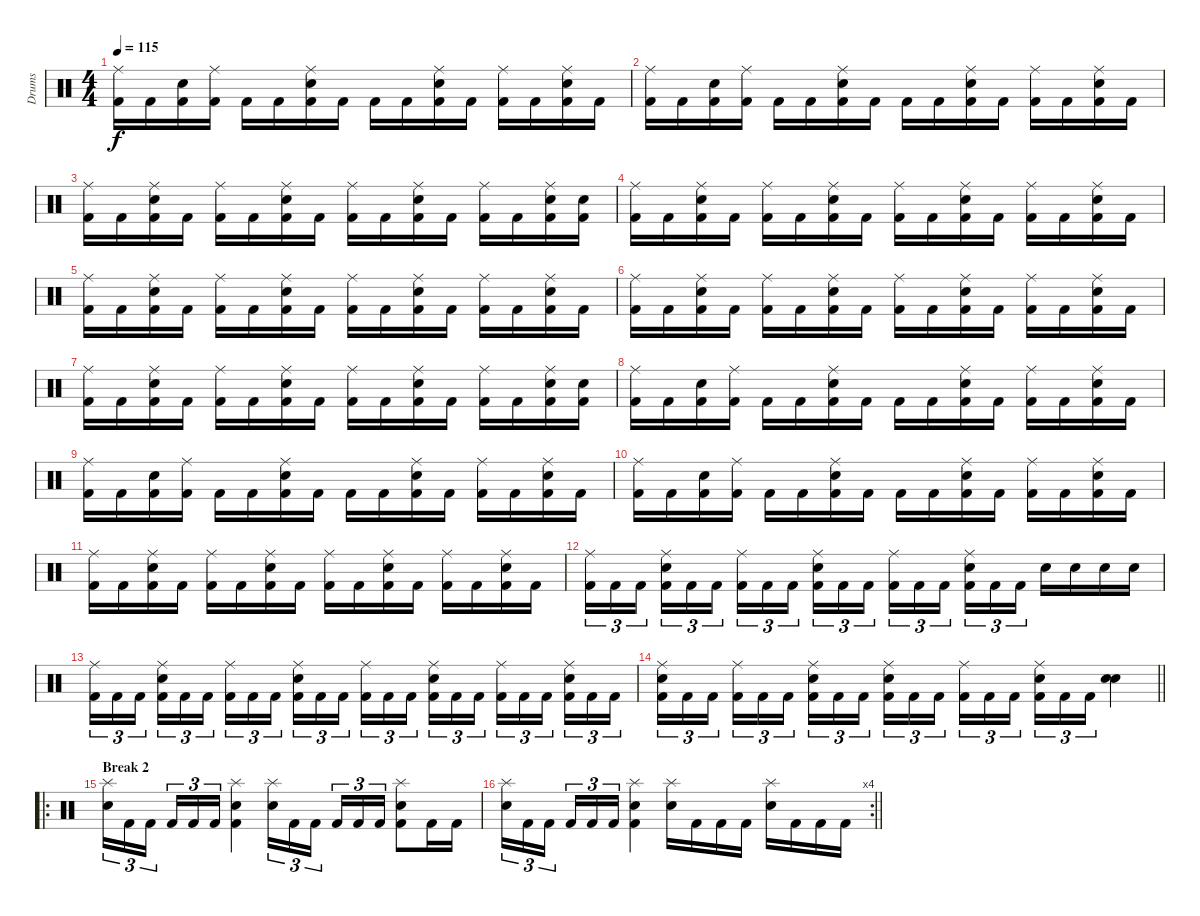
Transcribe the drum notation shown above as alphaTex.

\track ("Drums" "Drums") {instrument percussion}
\staff {score}
\articulation defaults
\ts (4 4)
\tempo 115
\clef neutral
\ks c
("Ride (middle)" "Kick (hit) 2").16{dy f} "Kick (hit) 2".16 ("Electric Snare (hit)" "Kick (hit) 2").16 ("Ride (middle)" "Kick (hit) 2").16 "Kick (hit) 2".16 "Kick (hit) 2".16 ("Ride (middle)" "Electric Snare (hit)" "Kick (hit) 2").16 "Kick (hit) 2".16 "Kick (hit) 2".16 "Kick (hit) 2".16 ("Ride (middle)" "Electric Snare (hit)" "Kick (hit) 2").16 "Kick (hit) 2".16 ("Ride (middle)" "Kick (hit) 2").16 "Kick (hit) 2".16 ("Ride (middle)" "Electric Snare (hit)" "Kick (hit) 2").16 "Kick (hit) 2".16 |
("Ride (middle)" "Kick (hit) 2").16 "Kick (hit) 2".16 ("Electric Snare (hit)" "Kick (hit) 2").16 ("Ride (middle)" "Kick (hit) 2").16 "Kick (hit) 2".16 "Kick (hit) 2".16 ("Ride (middle)" "Electric Snare (hit)" "Kick (hit) 2").16 "Kick (hit) 2".16 "Kick (hit) 2".16 "Kick (hit) 2".16 ("Ride (middle)" "Electric Snare (hit)" "Kick (hit) 2").16 "Kick (hit) 2".16 ("Ride (middle)" "Kick (hit) 2").16 "Kick (hit) 2".16 ("Ride (middle)" "Electric Snare (hit)" "Kick (hit) 2").16 "Kick (hit) 2".16 |
("Ride (middle)" "Kick (hit) 2").16 "Kick (hit) 2".16 ("Ride (middle)" "Electric Snare (hit)" "Kick (hit) 2").16 "Kick (hit) 2".16 ("Ride (middle)" "Kick (hit) 2").16 "Kick (hit) 2".16 ("Ride (middle)" "Electric Snare (hit)" "Kick (hit) 2").16 "Kick (hit) 2".16 ("Ride (middle)" "Kick (hit) 2").16 "Kick (hit) 2".16 ("Ride (middle)" "Electric Snare (hit)" "Kick (hit) 2").16 "Kick (hit) 2".16 ("Ride (middle)" "Kick (hit) 2").16 "Kick (hit) 2".16 ("Ride (middle)" "Electric Snare (hit)" "Kick (hit) 2").16 ("Electric Snare (hit)" "Kick (hit) 2").16 |
("Ride (middle)" "Kick (hit) 2").16 "Kick (hit) 2".16 ("Ride (middle)" "Electric Snare (hit)" "Kick (hit) 2").16 "Kick (hit) 2".16 ("Ride (middle)" "Kick (hit) 2").16 "Kick (hit) 2".16 ("Ride (middle)" "Electric Snare (hit)" "Kick (hit) 2").16 "Kick (hit) 2".16 ("Ride (middle)" "Kick (hit) 2").16 "Kick (hit) 2".16 ("Ride (middle)" "Electric Snare (hit)" "Kick (hit) 2").16 "Kick (hit) 2".16 ("Ride (middle)" "Kick (hit) 2").16 "Kick (hit) 2".16 ("Ride (middle)" "Electric Snare (hit)" "Kick (hit) 2").16 "Kick (hit) 2".16 |
("Ride (middle)" "Kick (hit) 2").16 "Kick (hit) 2".16 ("Ride (middle)" "Electric Snare (hit)" "Kick (hit) 2").16 "Kick (hit) 2".16 ("Ride (middle)" "Kick (hit) 2").16 "Kick (hit) 2".16 ("Ride (middle)" "Electric Snare (hit)" "Kick (hit) 2").16 "Kick (hit) 2".16 ("Ride (middle)" "Kick (hit) 2").16 "Kick (hit) 2".16 ("Ride (middle)" "Electric Snare (hit)" "Kick (hit) 2").16 "Kick (hit) 2".16 ("Ride (middle)" "Kick (hit) 2").16 "Kick (hit) 2".16 ("Ride (middle)" "Electric Snare (hit)" "Kick (hit) 2").16 "Kick (hit) 2".16 |
("Ride (middle)" "Kick (hit) 2").16 "Kick (hit) 2".16 ("Ride (middle)" "Electric Snare (hit)" "Kick (hit) 2").16 "Kick (hit) 2".16 ("Ride (middle)" "Kick (hit) 2").16 "Kick (hit) 2".16 ("Ride (middle)" "Electric Snare (hit)" "Kick (hit) 2").16 "Kick (hit) 2".16 ("Ride (middle)" "Kick (hit) 2").16 "Kick (hit) 2".16 ("Ride (middle)" "Electric Snare (hit)" "Kick (hit) 2").16 "Kick (hit) 2".16 ("Ride (middle)" "Kick (hit) 2").16 "Kick (hit) 2".16 ("Ride (middle)" "Electric Snare (hit)" "Kick (hit) 2").16 "Kick (hit) 2".16 |
("Ride (middle)" "Kick (hit) 2").16 "Kick (hit) 2".16 ("Ride (middle)" "Electric Snare (hit)" "Kick (hit) 2").16 "Kick (hit) 2".16 ("Ride (middle)" "Kick (hit) 2").16 "Kick (hit) 2".16 ("Ride (middle)" "Electric Snare (hit)" "Kick (hit) 2").16 "Kick (hit) 2".16 ("Ride (middle)" "Kick (hit) 2").16 "Kick (hit) 2".16 ("Ride (middle)" "Electric Snare (hit)" "Kick (hit) 2").16 "Kick (hit) 2".16 ("Ride (middle)" "Kick (hit) 2").16 "Kick (hit) 2".16 ("Ride (middle)" "Electric Snare (hit)" "Kick (hit) 2").16 ("Electric Snare (hit)" "Kick (hit) 2").16 |
("Ride (middle)" "Kick (hit) 2").16 "Kick (hit) 2".16 ("Electric Snare (hit)" "Kick (hit) 2").16 ("Ride (middle)" "Kick (hit) 2").16 "Kick (hit) 2".16 "Kick (hit) 2".16 ("Ride (middle)" "Electric Snare (hit)" "Kick (hit) 2").16 "Kick (hit) 2".16 "Kick (hit) 2".16 "Kick (hit) 2".16 ("Ride (middle)" "Electric Snare (hit)" "Kick (hit) 2").16 "Kick (hit) 2".16 ("Ride (middle)" "Kick (hit) 2").16 "Kick (hit) 2".16 ("Ride (middle)" "Electric Snare (hit)" "Kick (hit) 2").16 "Kick (hit) 2".16 |
("Ride (middle)" "Kick (hit) 2").16 "Kick (hit) 2".16 ("Electric Snare (hit)" "Kick (hit) 2").16 ("Ride (middle)" "Kick (hit) 2").16 "Kick (hit) 2".16 "Kick (hit) 2".16 ("Ride (middle)" "Electric Snare (hit)" "Kick (hit) 2").16 "Kick (hit) 2".16 "Kick (hit) 2".16 "Kick (hit) 2".16 ("Ride (middle)" "Electric Snare (hit)" "Kick (hit) 2").16 "Kick (hit) 2".16 ("Ride (middle)" "Kick (hit) 2").16 "Kick (hit) 2".16 ("Ride (middle)" "Electric Snare (hit)" "Kick (hit) 2").16 "Kick (hit) 2".16 |
("Ride (middle)" "Kick (hit) 2").16 "Kick (hit) 2".16 ("Electric Snare (hit)" "Kick (hit) 2").16 ("Ride (middle)" "Kick (hit) 2").16 "Kick (hit) 2".16 "Kick (hit) 2".16 ("Ride (middle)" "Electric Snare (hit)" "Kick (hit) 2").16 "Kick (hit) 2".16 "Kick (hit) 2".16 "Kick (hit) 2".16 ("Ride (middle)" "Electric Snare (hit)" "Kick (hit) 2").16 "Kick (hit) 2".16 ("Ride (middle)" "Kick (hit) 2").16 "Kick (hit) 2".16 ("Ride (middle)" "Electric Snare (hit)" "Kick (hit) 2").16 "Kick (hit) 2".16 |
("Ride (middle)" "Kick (hit) 2").16 "Kick (hit) 2".16 ("Ride (middle)" "Electric Snare (hit)" "Kick (hit) 2").16 "Kick (hit) 2".16 ("Ride (middle)" "Kick (hit) 2").16 "Kick (hit) 2".16 ("Ride (middle)" "Electric Snare (hit)" "Kick (hit) 2").16 "Kick (hit) 2".16 ("Ride (middle)" "Kick (hit) 2").16 "Kick (hit) 2".16 ("Ride (middle)" "Electric Snare (hit)" "Kick (hit) 2").16 "Kick (hit) 2".16 ("Ride (middle)" "Kick (hit) 2").16 "Kick (hit) 2".16 ("Ride (middle)" "Electric Snare (hit)" "Kick (hit) 2").16 "Kick (hit) 2".16 |
("Ride (middle)" "Kick (hit) 2").16{tu (3 2)} "Kick (hit) 2".16{tu (3 2)} "Kick (hit) 2".16{tu (3 2) beam splitsecondary} ("Ride (middle)" "Electric Snare (hit)" "Kick (hit) 2").16{tu (3 2)} "Kick (hit) 2".16{tu (3 2)} "Kick (hit) 2".16{tu (3 2)} ("Ride (middle)" "Kick (hit) 2").16{tu (3 2)} "Kick (hit) 2".16{tu (3 2)} "Kick (hit) 2".16{tu (3 2) beam splitsecondary} ("Ride (middle)" "Electric Snare (hit)" "Kick (hit) 2").16{tu (3 2)} "Kick (hit) 2".16{tu (3 2)} "Kick (hit) 2".16{tu (3 2)} ("Ride (middle)" "Kick (hit) 2").16{tu (3 2)} "Kick (hit) 2".16{tu (3 2)} "Kick (hit) 2".16{tu (3 2) beam splitsecondary} ("Ride (middle)" "Electric Snare (hit)" "Kick (hit) 2").16{tu (3 2)} "Kick (hit) 2".16{tu (3 2)} "Kick (hit) 2".16{tu (3 2)} "Electric Snare (hit)".16 "Electric Snare (hit)".16 "Electric Snare (hit)".16 "Electric Snare (hit)".16 |
("Ride (middle)" "Kick (hit) 2").16{tu (3 2)} "Kick (hit) 2".16{tu (3 2)} "Kick (hit) 2".16{tu (3 2) beam splitsecondary} ("Ride (middle)" "Electric Snare (hit)" "Kick (hit) 2").16{tu (3 2)} "Kick (hit) 2".16{tu (3 2)} "Kick (hit) 2".16{tu (3 2)} ("Ride (middle)" "Kick (hit) 2").16{tu (3 2)} "Kick (hit) 2".16{tu (3 2)} "Kick (hit) 2".16{tu (3 2) beam splitsecondary} ("Ride (middle)" "Electric Snare (hit)" "Kick (hit) 2").16{tu (3 2)} "Kick (hit) 2".16{tu (3 2)} "Kick (hit) 2".16{tu (3 2)} ("Ride (middle)" "Kick (hit) 2").16{tu (3 2)} "Kick (hit) 2".16{tu (3 2)} "Kick (hit) 2".16{tu (3 2) beam splitsecondary} ("Ride (middle)" "Electric Snare (hit)" "Kick (hit) 2").16{tu (3 2)} "Kick (hit) 2".16{tu (3 2)} "Kick (hit) 2".16{tu (3 2)} ("Ride (middle)" "Kick (hit) 2").16{tu (3 2)} "Kick (hit) 2".16{tu (3 2)} "Kick (hit) 2".16{tu (3 2) beam splitsecondary} ("Ride (middle)" "Electric Snare (hit)" "Kick (hit) 2").16{tu (3 2)} "Kick (hit) 2".16{tu (3 2)} "Kick (hit) 2".16{tu (3 2)} |
\barLineRight lightlight
("Ride (middle)" "Electric Snare (hit)" "Kick (hit) 2").16{tu (3 2)} "Kick (hit) 2".16{tu (3 2)} "Kick (hit) 2".16{tu (3 2) beam splitsecondary} ("Ride (middle)" "Kick (hit) 2").16{tu (3 2)} "Kick (hit) 2".16{tu (3 2)} "Kick (hit) 2".16{tu (3 2)} ("Ride (middle)" "Electric Snare (hit)" "Kick (hit) 2").16{tu (3 2)} "Kick (hit) 2".16{tu (3 2)} "Kick (hit) 2".16{tu (3 2) beam splitsecondary} ("Ride (middle)" "Electric Snare (hit)" "Kick (hit) 2").16{tu (3 2)} "Kick (hit) 2".16{tu (3 2)} "Kick (hit) 2".16{tu (3 2)} ("Ride (middle)" "Kick (hit) 2").16{tu (3 2)} "Kick (hit) 2".16{tu (3 2)} "Kick (hit) 2".16{tu (3 2) beam splitsecondary} ("Ride (middle)" "Electric Snare (hit)" "Kick (hit) 2").16{tu (3 2)} "Kick (hit) 2".16{tu (3 2)} "Kick (hit) 2".16{tu (3 2)} ("Electric Snare (hit)" "Electric Snare (hit)").4{bd 120} |
\ro
\section ("" "Break 2")
("Splash (hit)" "Electric Snare (hit)").16{tu (3 2)} "Kick (hit) 2".16{tu (3 2)} "Kick (hit) 2".16{tu (3 2) beam splitsecondary} "Kick (hit) 2".16{tu (3 2)} "Kick (hit) 2".16{tu (3 2)} "Kick (hit) 2".16{tu (3 2)} ("Splash (hit)" "Electric Snare (hit)" "Kick (hit) 2").4 ("Splash (hit)" "Electric Snare (hit)").16{tu (3 2)} "Kick (hit) 2".16{tu (3 2)} "Kick (hit) 2".16{tu (3 2) beam splitsecondary} "Kick (hit) 2".16{tu (3 2)} "Kick (hit) 2".16{tu (3 2)} "Kick (hit) 2".16{tu (3 2)} ("Splash (hit)" "Electric Snare (hit)" "Kick (hit) 2").8 "Kick (hit) 2".16 "Kick (hit) 2".16 |
\rc 4
\barLineRight lightlight
("Splash (hit)" "Electric Snare (hit)").16{tu (3 2)} "Kick (hit) 2".16{tu (3 2)} "Kick (hit) 2".16{tu (3 2) beam splitsecondary} "Kick (hit) 2".16{tu (3 2)} "Kick (hit) 2".16{tu (3 2)} "Kick (hit) 2".16{tu (3 2)} ("Splash (hit)" "Electric Snare (hit)" "Kick (hit) 2").4 ("Splash (hit)" "Electric Snare (hit)").16 "Kick (hit) 2".16 "Kick (hit) 2".16 "Kick (hit) 2".16 ("Splash (hit)" "Electric Snare (hit)").16 "Kick (hit) 2".16 "Kick (hit) 2".16 "Kick (hit) 2".16
